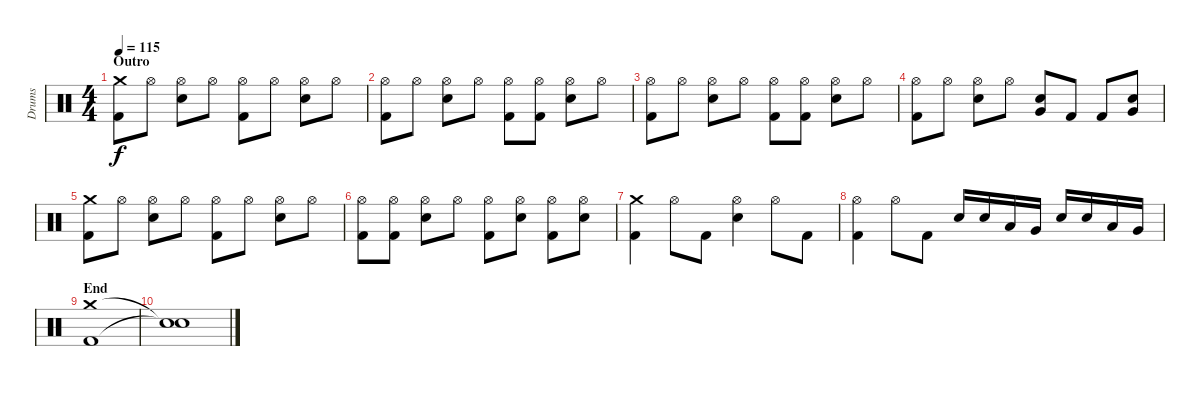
\track ("Drums" "Drums") {instrument percussion}
\staff {score}
\articulation defaults
\ts (4 4)
\section ("" "Outro")
\tempo 115
\clef neutral
\ks c
("Crash medium (hit)" "Kick (hit) 2").8{dy f} "Hi-Hat (open)".8 ("Hi-Hat (open)" "Electric Snare (hit)").8 "Hi-Hat (open)".8 ("Hi-Hat (open)" "Kick (hit) 2").8 "Hi-Hat (open)".8 ("Hi-Hat (open)" "Electric Snare (hit)").8 "Hi-Hat (open)".8 |
("Hi-Hat (open)" "Kick (hit) 2").8 "Hi-Hat (open)".8 ("Hi-Hat (open)" "Electric Snare (hit)").8 "Hi-Hat (open)".8 ("Hi-Hat (open)" "Kick (hit) 2").8 ("Hi-Hat (open)" "Kick (hit) 2").8 ("Hi-Hat (open)" "Electric Snare (hit)").8 "Hi-Hat (open)".8 |
("Hi-Hat (open)" "Kick (hit) 2").8 "Hi-Hat (open)".8 ("Hi-Hat (open)" "Electric Snare (hit)").8 "Hi-Hat (open)".8 ("Hi-Hat (open)" "Kick (hit) 2").8 ("Hi-Hat (open)" "Kick (hit) 2").8 ("Hi-Hat (open)" "Electric Snare (hit)").8 "Hi-Hat (open)".8 |
("Hi-Hat (open)" "Kick (hit) 2").8 "Hi-Hat (open)".8 ("Hi-Hat (open)" "Electric Snare (hit)").8 "Hi-Hat (open)".8 ("Electric Snare (hit)" "Very Low Tom (hit)").8 "Kick (hit) 2".8 "Kick (hit) 2".8 ("Electric Snare (hit)" "Very Low Tom (hit)").8 |
("Crash medium (hit)" "Kick (hit) 2").8 "Hi-Hat (open)".8 ("Hi-Hat (open)" "Electric Snare (hit)").8 "Hi-Hat (open)".8 ("Hi-Hat (open)" "Kick (hit) 2").8 "Hi-Hat (open)".8 ("Hi-Hat (open)" "Electric Snare (hit)").8 "Hi-Hat (open)".8 |
("Hi-Hat (open)" "Kick (hit) 2").8 ("Hi-Hat (open)" "Kick (hit) 2").8 ("Hi-Hat (open)" "Electric Snare (hit)").8 "Hi-Hat (open)".8 ("Hi-Hat (open)" "Kick (hit) 2").8 ("Hi-Hat (open)" "Electric Snare (hit)").8 ("Hi-Hat (open)" "Kick (hit) 2").8 ("Hi-Hat (open)" "Electric Snare (hit)").8 |
("Crash medium (hit)" "Kick (hit) 2").4 "Hi-Hat (open)".8 "Kick (hit) 2".8 ("Hi-Hat (open)" "Electric Snare (hit)").4 "Hi-Hat (open)".8 "Kick (hit) 2".8 |
("Hi-Hat (open)" "Kick (hit) 2").4 "Hi-Hat (open)".8 "Kick (hit) 2".8 "Electric Snare (hit)".16 "Electric Snare (hit)".16 "Low Tom (hit)".16 "Very Low Tom (hit)".16 "Electric Snare (hit)".16 "Electric Snare (hit)".16 "Low Tom (hit)".16 "Very Low Tom (hit)".16 |
\section ("" "End")
("Crash medium (hit)" "Kick (hit) 2").1 |
("Snare (hit)"{t} "Snare (hit)"{t}).1
